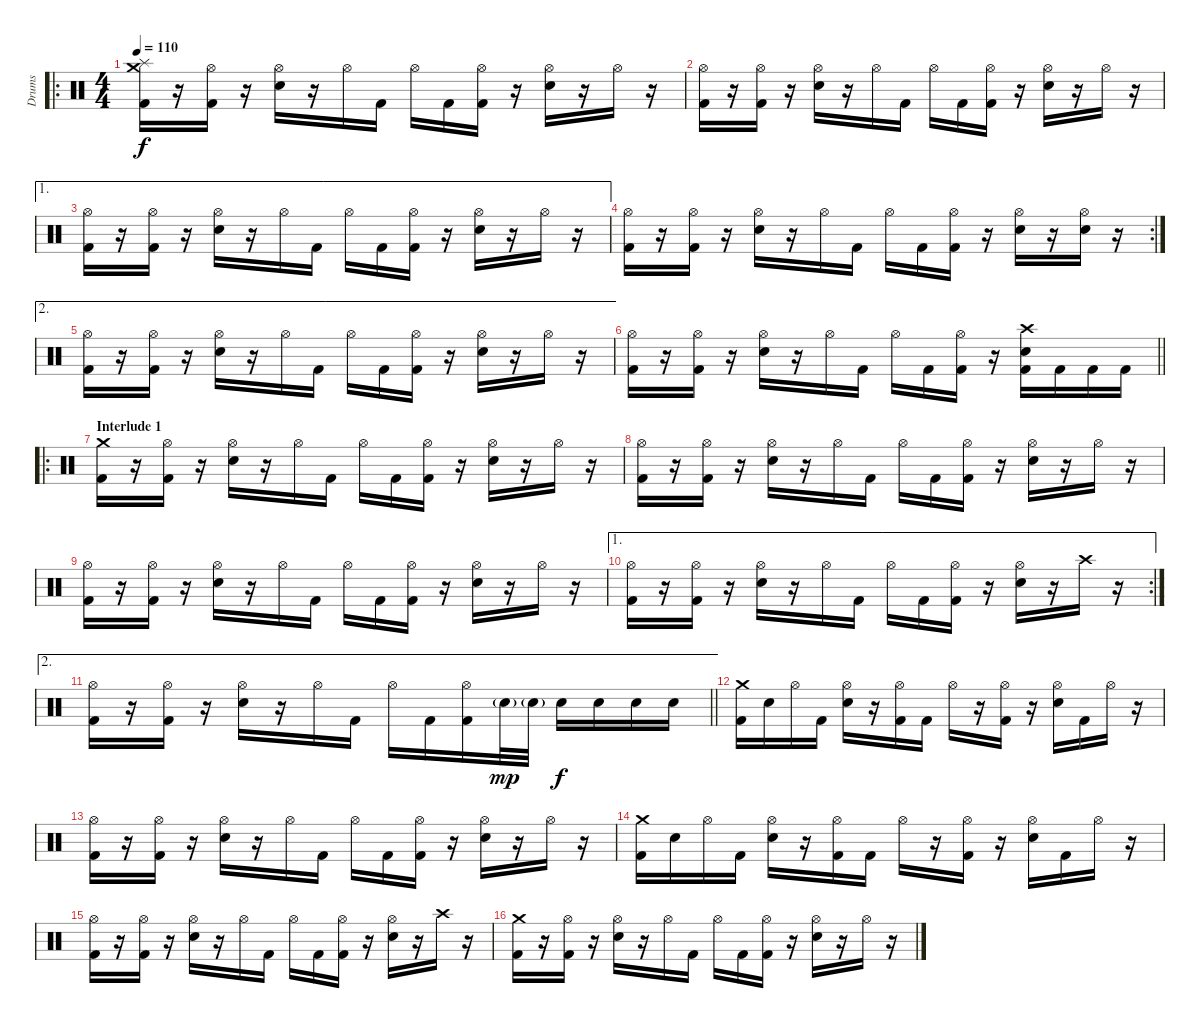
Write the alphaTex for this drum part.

\track ("Drums" "Drums") {instrument percussion}
\staff {score}
\articulation defaults
\ro
\ts (4 4)
\tempo 110
\clef neutral
\ks c
("Crash medium (hit)" "Splash (hit)" "Kick (hit) 2").16{dy f} r.16 ("Hi-Hat (open)" "Kick (hit) 2").16 r.16 ("Hi-Hat (open)" "Electric Snare (hit)").16 r.16 "Hi-Hat (open)".16 "Kick (hit) 2".16 "Hi-Hat (open)".16 "Kick (hit) 2".16 ("Hi-Hat (open)" "Kick (hit) 2").16 r.16 ("Hi-Hat (open)" "Electric Snare (hit)").16 r.16 "Hi-Hat (open)".16 r.16 |
("Hi-Hat (open)" "Kick (hit) 2").16 r.16 ("Hi-Hat (open)" "Kick (hit) 2").16 r.16 ("Hi-Hat (open)" "Electric Snare (hit)").16 r.16 "Hi-Hat (open)".16 "Kick (hit) 2".16 "Hi-Hat (open)".16 "Kick (hit) 2".16 ("Hi-Hat (open)" "Kick (hit) 2").16 r.16 ("Hi-Hat (open)" "Electric Snare (hit)").16 r.16 "Hi-Hat (open)".16 r.16 |
\ae 1
("Hi-Hat (open)" "Kick (hit) 2").16 r.16 ("Hi-Hat (open)" "Kick (hit) 2").16 r.16 ("Hi-Hat (open)" "Electric Snare (hit)").16 r.16 "Hi-Hat (open)".16 "Kick (hit) 2".16 "Hi-Hat (open)".16 "Kick (hit) 2".16 ("Hi-Hat (open)" "Kick (hit) 2").16 r.16 ("Hi-Hat (open)" "Electric Snare (hit)").16 r.16 "Hi-Hat (open)".16 r.16 |
\rc 2
("Hi-Hat (open)" "Kick (hit) 2").16 r.16 ("Hi-Hat (open)" "Kick (hit) 2").16 r.16 ("Hi-Hat (open)" "Electric Snare (hit)").16 r.16 "Hi-Hat (open)".16 "Kick (hit) 2".16 "Hi-Hat (open)".16 "Kick (hit) 2".16 ("Hi-Hat (open)" "Kick (hit) 2").16 r.16 ("Hi-Hat (open)" "Electric Snare (hit)").16 r.16 ("Hi-Hat (open)" "Electric Snare (hit)").16 r.16 |
\ae 2
("Hi-Hat (open)" "Kick (hit) 2").16 r.16 ("Hi-Hat (open)" "Kick (hit) 2").16 r.16 ("Hi-Hat (open)" "Electric Snare (hit)").16 r.16 "Hi-Hat (open)".16 "Kick (hit) 2".16 "Hi-Hat (open)".16 "Kick (hit) 2".16 ("Hi-Hat (open)" "Kick (hit) 2").16 r.16 ("Hi-Hat (open)" "Electric Snare (hit)").16 r.16 "Hi-Hat (open)".16 r.16 |
\barLineRight lightlight
("Hi-Hat (open)" "Kick (hit) 2").16 r.16 ("Hi-Hat (open)" "Kick (hit) 2").16 r.16 ("Hi-Hat (open)" "Electric Snare (hit)").16 r.16 "Hi-Hat (open)".16 "Kick (hit) 2".16 "Hi-Hat (open)".16 "Kick (hit) 2".16 ("Hi-Hat (open)" "Kick (hit) 2").16 r.16 ("Crash high (hit)" "Electric Snare (hit)" "Kick (hit) 2").16 "Kick (hit) 2".16 "Kick (hit) 2".16 "Kick (hit) 2".16 |
\ro
\section ("" "Interlude 1")
("Crash medium (hit)" "Kick (hit) 2").16 r.16 ("Hi-Hat (open)" "Kick (hit) 2").16 r.16 ("Hi-Hat (open)" "Electric Snare (hit)").16 r.16 "Hi-Hat (open)".16 "Kick (hit) 2".16 "Hi-Hat (open)".16 "Kick (hit) 2".16 ("Hi-Hat (open)" "Kick (hit) 2").16 r.16 ("Hi-Hat (open)" "Electric Snare (hit)").16 r.16 "Hi-Hat (open)".16 r.16 |
("Hi-Hat (open)" "Kick (hit) 2").16 r.16 ("Hi-Hat (open)" "Kick (hit) 2").16 r.16 ("Hi-Hat (open)" "Electric Snare (hit)").16 r.16 "Hi-Hat (open)".16 "Kick (hit) 2".16 "Hi-Hat (open)".16 "Kick (hit) 2".16 ("Hi-Hat (open)" "Kick (hit) 2").16 r.16 ("Hi-Hat (open)" "Electric Snare (hit)").16 r.16 "Hi-Hat (open)".16 r.16 |
("Hi-Hat (open)" "Kick (hit) 2").16 r.16 ("Hi-Hat (open)" "Kick (hit) 2").16 r.16 ("Hi-Hat (open)" "Electric Snare (hit)").16 r.16 "Hi-Hat (open)".16 "Kick (hit) 2".16 "Hi-Hat (open)".16 "Kick (hit) 2".16 ("Hi-Hat (open)" "Kick (hit) 2").16 r.16 ("Hi-Hat (open)" "Electric Snare (hit)").16 r.16 "Hi-Hat (open)".16 r.16 |
\ae 1
\rc 2
("Hi-Hat (open)" "Kick (hit) 2").16 r.16 ("Hi-Hat (open)" "Kick (hit) 2").16 r.16 ("Hi-Hat (open)" "Electric Snare (hit)").16 r.16 "Hi-Hat (open)".16 "Kick (hit) 2".16 "Hi-Hat (open)".16 "Kick (hit) 2".16 ("Hi-Hat (open)" "Kick (hit) 2").16 r.16 ("Hi-Hat (open)" "Electric Snare (hit)").16 r.16 "Crash high (hit)".16 r.16 |
\ae 2
\barLineRight lightlight
("Hi-Hat (open)" "Kick (hit) 2").16 r.16 ("Hi-Hat (open)" "Kick (hit) 2").16 r.16 ("Hi-Hat (open)" "Electric Snare (hit)").16 r.16 "Hi-Hat (open)".16 "Kick (hit) 2".16 "Hi-Hat (open)".16 "Kick (hit) 2".16 ("Hi-Hat (open)" "Kick (hit) 2").16 "Electric Snare (hit)"{g}.32{dy mp} "Electric Snare (hit)"{g}.32 "Electric Snare (hit)".16{dy f} "Electric Snare (hit)".16 "Electric Snare (hit)".16 "Electric Snare (hit)".16 |
("Crash medium (hit)" "Kick (hit) 2").16 "Electric Snare (hit)".16 "Hi-Hat (open)".16 "Kick (hit) 2".16 ("Hi-Hat (open)" "Electric Snare (hit)").16 r.16 ("Hi-Hat (open)" "Kick (hit) 2").16 "Kick (hit) 2".16 "Hi-Hat (open)".16 r.16 ("Hi-Hat (open)" "Kick (hit) 2").16 r.16 ("Hi-Hat (open)" "Electric Snare (hit)").16 "Kick (hit) 2".16 "Hi-Hat (open)".16 r.16 |
("Hi-Hat (open)" "Kick (hit) 2").16 r.16 ("Hi-Hat (open)" "Kick (hit) 2").16 r.16 ("Hi-Hat (open)" "Electric Snare (hit)").16 r.16 "Hi-Hat (open)".16 "Kick (hit) 2".16 "Hi-Hat (open)".16 "Kick (hit) 2".16 ("Hi-Hat (open)" "Kick (hit) 2").16 r.16 ("Hi-Hat (open)" "Electric Snare (hit)").16 r.16 "Hi-Hat (open)".16 r.16 |
("Crash medium (hit)" "Kick (hit) 2").16 "Electric Snare (hit)".16 "Hi-Hat (open)".16 "Kick (hit) 2".16 ("Hi-Hat (open)" "Electric Snare (hit)").16 r.16 ("Hi-Hat (open)" "Kick (hit) 2").16 "Kick (hit) 2".16 "Hi-Hat (open)".16 r.16 ("Hi-Hat (open)" "Kick (hit) 2").16 r.16 ("Hi-Hat (open)" "Electric Snare (hit)").16 "Kick (hit) 2".16 "Hi-Hat (open)".16 r.16 |
("Hi-Hat (open)" "Kick (hit) 2").16 r.16 ("Hi-Hat (open)" "Kick (hit) 2").16 r.16 ("Hi-Hat (open)" "Electric Snare (hit)").16 r.16 "Hi-Hat (open)".16 "Kick (hit) 2".16 "Hi-Hat (open)".16 "Kick (hit) 2".16 ("Hi-Hat (open)" "Kick (hit) 2").16 r.16 ("Hi-Hat (open)" "Electric Snare (hit)").16 r.16 "Crash high (hit)".16 r.16 |
("Crash medium (hit)" "Kick (hit) 2").16 r.16 ("Hi-Hat (open)" "Kick (hit) 2").16 r.16 ("Hi-Hat (open)" "Electric Snare (hit)").16 r.16 "Hi-Hat (open)".16 "Kick (hit) 2".16 "Hi-Hat (open)".16 "Kick (hit) 2".16 ("Hi-Hat (open)" "Kick (hit) 2").16 r.16 ("Hi-Hat (open)" "Electric Snare (hit)").16 r.16 "Hi-Hat (open)".16 r.16
